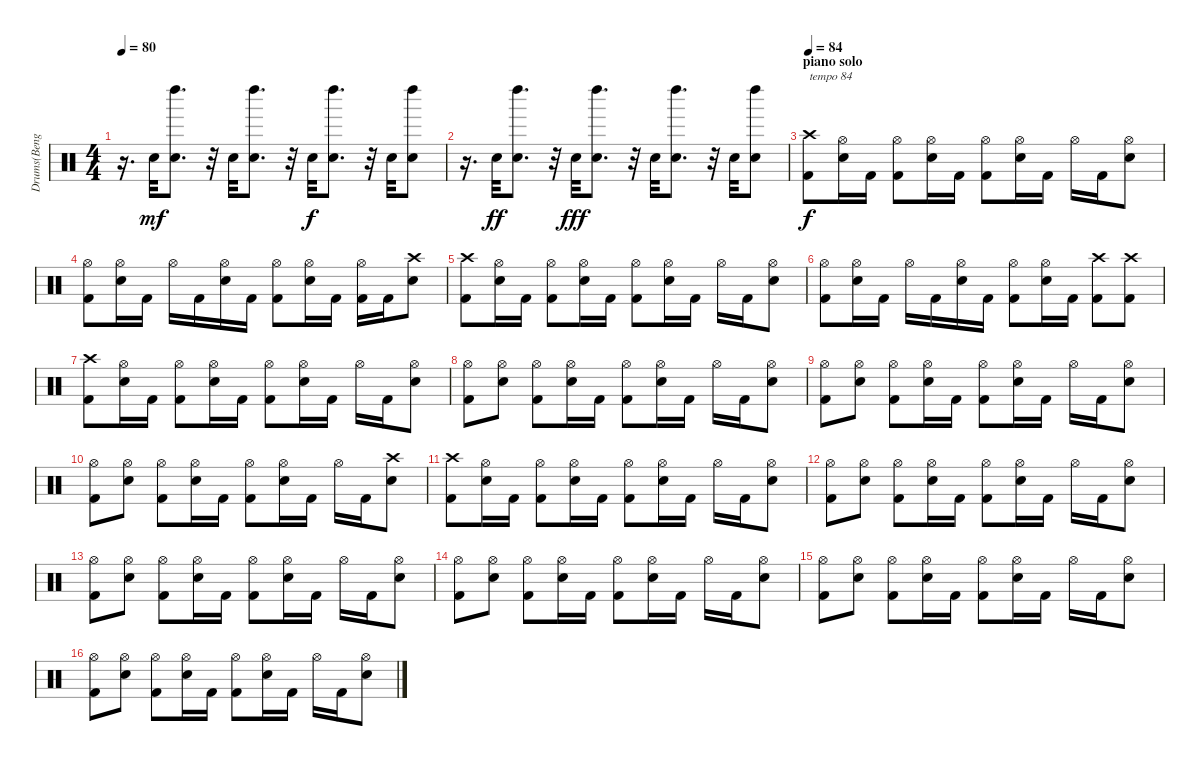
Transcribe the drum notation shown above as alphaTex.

\track ("Drums(Bengerg)" "Drums(Beng") {instrument percussion}
\staff {score}
\articulation defaults
\ts (4 4)
\tempo 80
\clef neutral
\ks c
r.16{d dy f} "Electric Snare (hit)".32{dy mf} ("Left Maraca (hit)" "Electric Snare (hit)").8{d} r.32 "Electric Snare (hit)".32 ("Left Maraca (hit)" "Electric Snare (hit)").8{d} r.32 "Electric Snare (hit)".32{dy f} ("Left Maraca (hit)" "Electric Snare (hit)").8{d} r.32 "Electric Snare (hit)".32 ("Left Maraca (hit)" "Electric Snare (hit)").8 |
r.16{d} "Electric Snare (hit)".32{dy ff} ("Left Maraca (hit)" "Electric Snare (hit)").8{d} r.32 "Electric Snare (hit)".32{dy fff} ("Left Maraca (hit)" "Electric Snare (hit)").8{d} r.32 "Electric Snare (hit)".32 ("Left Maraca (hit)" "Electric Snare (hit)").8{d} r.32 "Electric Snare (hit)".32 ("Left Maraca (hit)" "Electric Snare (hit)").8 |
\section ("" "piano solo")
\tempo 84
("Crash high (hit)" "Kick (hit) 2").8{txt "tempo 84" dy f} ("Hi-Hat (open)" "Electric Snare (hit)").16 "Kick (hit) 2".16 ("Hi-Hat (open)" "Kick (hit) 2").8 ("Hi-Hat (open)" "Electric Snare (hit)").16 "Kick (hit) 2".16 ("Hi-Hat (open)" "Kick (hit) 2").8 ("Hi-Hat (open)" "Electric Snare (hit)").16 "Kick (hit) 2".16 "Hi-Hat (open)".16 "Kick (hit) 2".16 ("Hi-Hat (open)" "Electric Snare (hit)").8 |
("Hi-Hat (open)" "Kick (hit) 2").8 ("Hi-Hat (open)" "Electric Snare (hit)").16 "Kick (hit) 2".16 "Hi-Hat (open)".16 "Kick (hit) 2".16 ("Hi-Hat (open)" "Electric Snare (hit)").16 "Kick (hit) 2".16 ("Hi-Hat (open)" "Kick (hit) 2").8 ("Hi-Hat (open)" "Electric Snare (hit)").16 "Kick (hit) 2".16 ("Hi-Hat (open)" "Kick (hit) 2").16 "Kick (hit) 2".16 ("Crash high (hit)" "Electric Snare (hit)").8 |
("Crash high (hit)" "Kick (hit) 2").8 ("Hi-Hat (open)" "Electric Snare (hit)").16 "Kick (hit) 2".16 ("Hi-Hat (open)" "Kick (hit) 2").8 ("Hi-Hat (open)" "Electric Snare (hit)").16 "Kick (hit) 2".16 ("Hi-Hat (open)" "Kick (hit) 2").8 ("Hi-Hat (open)" "Electric Snare (hit)").16 "Kick (hit) 2".16 "Hi-Hat (open)".16 "Kick (hit) 2".16 ("Hi-Hat (open)" "Electric Snare (hit)").8 |
("Hi-Hat (open)" "Kick (hit) 2").8 ("Hi-Hat (open)" "Electric Snare (hit)").16 "Kick (hit) 2".16 "Hi-Hat (open)".16 "Kick (hit) 2".16 ("Hi-Hat (open)" "Electric Snare (hit)").16 "Kick (hit) 2".16 ("Hi-Hat (open)" "Kick (hit) 2").8 ("Hi-Hat (open)" "Electric Snare (hit)").16 "Kick (hit) 2".16 ("Crash high (hit)" "Kick (hit) 2").8 ("Crash high (hit)" "Kick (hit) 2").8 |
("Crash high (hit)" "Kick (hit) 2").8 ("Hi-Hat (open)" "Electric Snare (hit)").16 "Kick (hit) 2".16 ("Hi-Hat (open)" "Kick (hit) 2").8 ("Hi-Hat (open)" "Electric Snare (hit)").16 "Kick (hit) 2".16 ("Hi-Hat (open)" "Kick (hit) 2").8 ("Hi-Hat (open)" "Electric Snare (hit)").16 "Kick (hit) 2".16 "Hi-Hat (open)".16 "Kick (hit) 2".16 ("Hi-Hat (open)" "Electric Snare (hit)").8 |
("Hi-Hat (open)" "Kick (hit) 2").8 ("Hi-Hat (open)" "Electric Snare (hit)").8 ("Hi-Hat (open)" "Kick (hit) 2").8 ("Hi-Hat (open)" "Electric Snare (hit)").16 "Kick (hit) 2".16 ("Hi-Hat (open)" "Kick (hit) 2").8 ("Hi-Hat (open)" "Electric Snare (hit)").16 "Kick (hit) 2".16 "Hi-Hat (open)".16 "Kick (hit) 2".16 ("Hi-Hat (open)" "Electric Snare (hit)").8 |
("Hi-Hat (open)" "Kick (hit) 2").8 ("Hi-Hat (open)" "Electric Snare (hit)").8 ("Hi-Hat (open)" "Kick (hit) 2").8 ("Hi-Hat (open)" "Electric Snare (hit)").16 "Kick (hit) 2".16 ("Hi-Hat (open)" "Kick (hit) 2").8 ("Hi-Hat (open)" "Electric Snare (hit)").16 "Kick (hit) 2".16 "Hi-Hat (open)".16 "Kick (hit) 2".16 ("Hi-Hat (open)" "Electric Snare (hit)").8 |
("Hi-Hat (open)" "Kick (hit) 2").8 ("Hi-Hat (open)" "Electric Snare (hit)").8 ("Hi-Hat (open)" "Kick (hit) 2").8 ("Hi-Hat (open)" "Electric Snare (hit)").16 "Kick (hit) 2".16 ("Hi-Hat (open)" "Kick (hit) 2").8 ("Hi-Hat (open)" "Electric Snare (hit)").16 "Kick (hit) 2".16 "Hi-Hat (open)".16 "Kick (hit) 2".16 ("Crash high (hit)" "Electric Snare (hit)").8 |
("Crash high (hit)" "Kick (hit) 2").8 ("Hi-Hat (open)" "Electric Snare (hit)").16 "Kick (hit) 2".16 ("Hi-Hat (open)" "Kick (hit) 2").8 ("Hi-Hat (open)" "Electric Snare (hit)").16 "Kick (hit) 2".16 ("Hi-Hat (open)" "Kick (hit) 2").8 ("Hi-Hat (open)" "Electric Snare (hit)").16 "Kick (hit) 2".16 "Hi-Hat (open)".16 "Kick (hit) 2".16 ("Hi-Hat (open)" "Electric Snare (hit)").8 |
("Hi-Hat (open)" "Kick (hit) 2").8 ("Hi-Hat (open)" "Electric Snare (hit)").8 ("Hi-Hat (open)" "Kick (hit) 2").8 ("Hi-Hat (open)" "Electric Snare (hit)").16 "Kick (hit) 2".16 ("Hi-Hat (open)" "Kick (hit) 2").8 ("Hi-Hat (open)" "Electric Snare (hit)").16 "Kick (hit) 2".16 "Hi-Hat (open)".16 "Kick (hit) 2".16 ("Hi-Hat (open)" "Electric Snare (hit)").8 |
("Hi-Hat (open)" "Kick (hit) 2").8 ("Hi-Hat (open)" "Electric Snare (hit)").8 ("Hi-Hat (open)" "Kick (hit) 2").8 ("Hi-Hat (open)" "Electric Snare (hit)").16 "Kick (hit) 2".16 ("Hi-Hat (open)" "Kick (hit) 2").8 ("Hi-Hat (open)" "Electric Snare (hit)").16 "Kick (hit) 2".16 "Hi-Hat (open)".16 "Kick (hit) 2".16 ("Hi-Hat (open)" "Electric Snare (hit)").8 |
("Hi-Hat (open)" "Kick (hit) 2").8 ("Hi-Hat (open)" "Electric Snare (hit)").8 ("Hi-Hat (open)" "Kick (hit) 2").8 ("Hi-Hat (open)" "Electric Snare (hit)").16 "Kick (hit) 2".16 ("Hi-Hat (open)" "Kick (hit) 2").8 ("Hi-Hat (open)" "Electric Snare (hit)").16 "Kick (hit) 2".16 "Hi-Hat (open)".16 "Kick (hit) 2".16 ("Hi-Hat (open)" "Electric Snare (hit)").8 |
("Hi-Hat (open)" "Kick (hit) 2").8 ("Hi-Hat (open)" "Electric Snare (hit)").8 ("Hi-Hat (open)" "Kick (hit) 2").8 ("Hi-Hat (open)" "Electric Snare (hit)").16 "Kick (hit) 2".16 ("Hi-Hat (open)" "Kick (hit) 2").8 ("Hi-Hat (open)" "Electric Snare (hit)").16 "Kick (hit) 2".16 "Hi-Hat (open)".16 "Kick (hit) 2".16 ("Hi-Hat (open)" "Electric Snare (hit)").8 |
("Hi-Hat (open)" "Kick (hit) 2").8 ("Hi-Hat (open)" "Electric Snare (hit)").8 ("Hi-Hat (open)" "Kick (hit) 2").8 ("Hi-Hat (open)" "Electric Snare (hit)").16 "Kick (hit) 2".16 ("Hi-Hat (open)" "Kick (hit) 2").8 ("Hi-Hat (open)" "Electric Snare (hit)").16 "Kick (hit) 2".16 "Hi-Hat (open)".16 "Kick (hit) 2".16 ("Hi-Hat (open)" "Electric Snare (hit)").8
